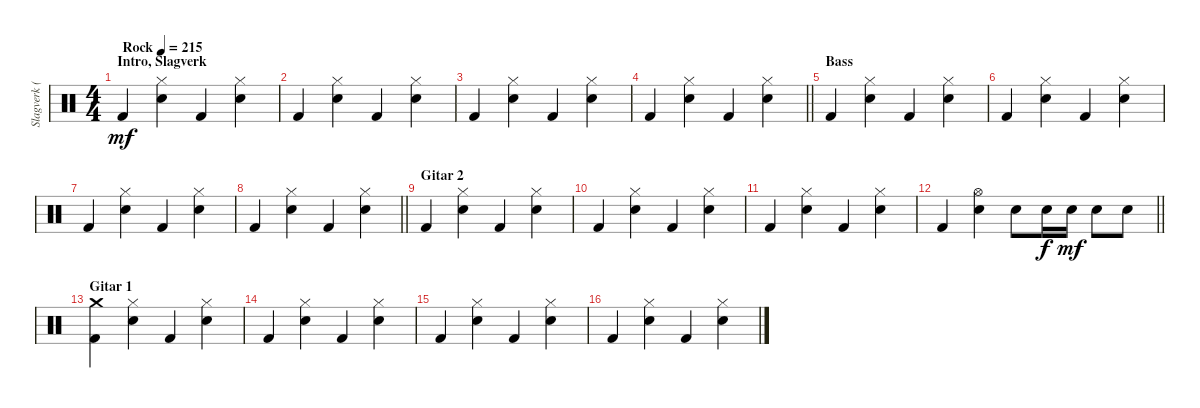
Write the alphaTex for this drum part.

\track ("Slagverk (Jan Kristiansen)" "Slagverk (") {instrument percussion}
\staff {score}
\articulation defaults
\ts (4 4)
\section ("" "Intro, Slagverk")
\tempo (215 "Rock")
\clef neutral
\ks c "Kick (hit) 2".4{dy mf}
("Hi-Hat (closed)" "Snare (hit) 2").4 "Kick (hit) 2".4 ("Hi-Hat (closed)" "Snare (hit) 2").4 |
"Kick (hit) 2".4 ("Hi-Hat (closed)" "Snare (hit) 2").4 "Kick (hit) 2".4 ("Hi-Hat (closed)" "Snare (hit) 2").4 |
"Kick (hit) 2".4 ("Hi-Hat (closed)" "Snare (hit) 2").4 "Kick (hit) 2".4 ("Hi-Hat (closed)" "Snare (hit) 2").4 |
\barLineRight lightlight "Kick (hit) 2".4
("Hi-Hat (closed)" "Snare (hit) 2").4 "Kick (hit) 2".4 ("Hi-Hat (closed)" "Snare (hit) 2").4 |
\section ("" "Bass")
"Kick (hit) 2".4 ("Hi-Hat (closed)" "Snare (hit) 2").4 "Kick (hit) 2".4 ("Hi-Hat (closed)" "Snare (hit) 2").4 |
"Kick (hit) 2".4 ("Hi-Hat (closed)" "Snare (hit) 2").4 "Kick (hit) 2".4 ("Hi-Hat (closed)" "Snare (hit) 2").4 |
"Kick (hit) 2".4 ("Hi-Hat (closed)" "Snare (hit) 2").4 "Kick (hit) 2".4 ("Hi-Hat (closed)" "Snare (hit) 2").4 |
\barLineRight lightlight "Kick (hit) 2".4
("Hi-Hat (closed)" "Snare (hit) 2").4 "Kick (hit) 2".4 ("Hi-Hat (closed)" "Snare (hit) 2").4 |
\section ("" "Gitar 2")
"Kick (hit) 2".4 ("Hi-Hat (closed)" "Snare (hit) 2").4 "Kick (hit) 2".4 ("Hi-Hat (closed)" "Snare (hit) 2").4 |
"Kick (hit) 2".4 ("Hi-Hat (closed)" "Snare (hit) 2").4 "Kick (hit) 2".4 ("Hi-Hat (closed)" "Snare (hit) 2").4 |
"Kick (hit) 2".4 ("Hi-Hat (closed)" "Snare (hit) 2").4 "Kick (hit) 2".4 ("Hi-Hat (closed)" "Snare (hit) 2").4 |
\barLineRight lightlight "Kick (hit) 2".4
("Hi-Hat (open)" "Snare (hit) 2").4 "Snare (hit) 2".8 "Snare (hit) 2".16{dy f} "Snare (hit) 2".16{dy mf} "Snare (hit) 2".8 "Snare (hit) 2".8 |
\section ("" "Gitar 1")
("Crash medium (hit)" "Kick (hit) 2").4 ("Hi-Hat (closed)" "Snare (hit) 2").4 "Kick (hit) 2".4 ("Hi-Hat (closed)" "Snare (hit) 2").4 |
"Kick (hit) 2".4 ("Hi-Hat (closed)" "Snare (hit) 2").4 "Kick (hit) 2".4 ("Hi-Hat (closed)" "Snare (hit) 2").4 |
"Kick (hit) 2".4 ("Hi-Hat (closed)" "Snare (hit) 2").4 "Kick (hit) 2".4 ("Hi-Hat (closed)" "Snare (hit) 2").4 |
"Kick (hit) 2".4 ("Hi-Hat (closed)" "Snare (hit) 2").4 "Kick (hit) 2".4 ("Hi-Hat (closed)" "Snare (hit) 2").4
